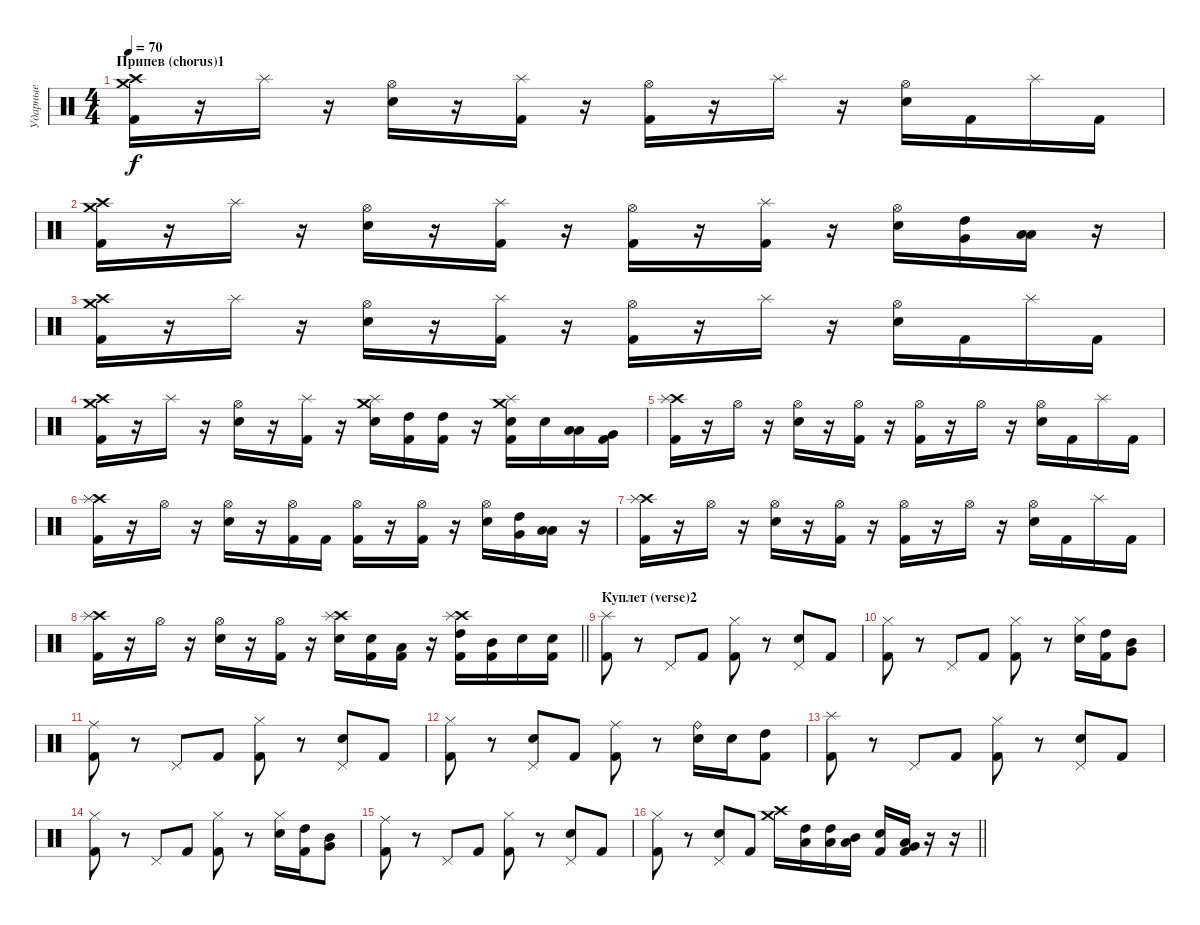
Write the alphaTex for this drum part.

\track ("Ударные" "Ударные") {instrument percussion}
\staff {score}
\articulation defaults
\ts (4 4)
\section ("" "Припев (chorus)1")
\tempo 70
\clef neutral
\ks c
("Crash high (hit)" "Crash medium (hit)" "Kick (hit) 2").16{dy f} r.16 "Splash (hit)".16 r.16 ("Hi-Hat (open)" "Snare (hit) 2").16 r.16 ("Splash (hit)" "Kick (hit) 2").16 r.16 ("Hi-Hat (open)" "Kick (hit) 2").16 r.16 "Splash (hit)".16 r.16 ("Hi-Hat (open)" "Snare (hit) 2").16 "Kick (hit) 2".16 "Splash (hit)".16 "Kick (hit) 2".16 |
("Crash high (hit)" "Crash medium (hit)" "Kick (hit) 2").16 r.16 "Splash (hit)".16 r.16 ("Hi-Hat (open)" "Snare (hit) 2").16 r.16 ("Splash (hit)" "Kick (hit) 2").16 r.16 ("Hi-Hat (open)" "Kick (hit) 2").16 r.16 ("Splash (hit)" "Kick (hit) 2").16 r.16 ("Hi-Hat (open)" "Snare (hit) 2").16 ("High Tom (hit)" "Very Low Tom (hit)").16 ("Low Tom (hit)" "Low Floor Tom (hit)").16 r.16 |
("Crash high (hit)" "Crash medium (hit)" "Kick (hit) 2").16 r.16 "Splash (hit)".16 r.16 ("Hi-Hat (open)" "Snare (hit) 2").16 r.16 ("Splash (hit)" "Kick (hit) 2").16 r.16 ("Hi-Hat (open)" "Kick (hit) 2").16 r.16 "Splash (hit)".16 r.16 ("Hi-Hat (open)" "Snare (hit) 2").16 "Kick (hit) 2".16 "Splash (hit)".16 "Kick (hit) 2".16 |
("Crash high (hit)" "Crash medium (hit)" "Kick (hit) 2").16 r.16 "Splash (hit)".16 r.16 ("Hi-Hat (open)" "Snare (hit) 2").16 r.16 ("Splash (hit)" "Kick (hit) 2").16 r.16 ("Crash medium (hit)" "Splash (hit)" "Snare (hit) 2").16 ("High Tom (hit)" "Kick (hit) 2").16 ("High Tom (hit)" "Kick (hit) 2").16 r.16 ("Crash medium (hit)" "Splash (hit)" "Snare (hit) 2" "Kick (hit) 2").16 "Snare (hit) 2".16 ("Low Tom (hit)" "Low Floor Tom (hit)").16 ("Very Low Tom (hit)" "Kick (hit) 2").16 |
("Crash high (hit)" "Splash (hit)" "Kick (hit) 2").16 r.16 "Hi-Hat (open)".16 r.16 ("Hi-Hat (open)" "Snare (hit) 2").16 r.16 ("Hi-Hat (open)" "Kick (hit) 2").16 r.16 ("Hi-Hat (open)" "Kick (hit) 2").16 r.16 "Hi-Hat (open)".16 r.16 ("Hi-Hat (open)" "Snare (hit) 2").16 "Kick (hit) 2".16 "Splash (hit)".16 "Kick (hit) 2".16 |
("Crash high (hit)" "Splash (hit)" "Kick (hit) 2").16 r.16 "Hi-Hat (open)".16 r.16 ("Hi-Hat (open)" "Snare (hit) 2").16 r.16 ("Hi-Hat (open)" "Kick (hit) 2").16 "Kick (hit) 2".16 ("Hi-Hat (open)" "Kick (hit) 2").16 r.16 ("Hi-Hat (open)" "Kick (hit) 2").16 r.16 ("Hi-Hat (open)" "Snare (hit) 2").16 ("High Tom (hit)" "Very Low Tom (hit)").16 ("Low Tom (hit)" "Low Floor Tom (hit)").16 r.16 |
("Crash high (hit)" "Splash (hit)" "Kick (hit) 2").16 r.16 "Hi-Hat (open)".16 r.16 ("Hi-Hat (open)" "Snare (hit) 2").16 r.16 ("Hi-Hat (open)" "Kick (hit) 2").16 r.16 ("Hi-Hat (open)" "Kick (hit) 2").16 r.16 "Hi-Hat (open)".16 r.16 ("Hi-Hat (open)" "Snare (hit) 2").16 "Kick (hit) 2".16 "Splash (hit)".16 "Kick (hit) 2".16 |
\barLineRight lightlight
("Crash high (hit)" "Splash (hit)" "Kick (hit) 2").16 r.16 "Hi-Hat (open)".16 r.16 ("Hi-Hat (open)" "Snare (hit) 2").16 r.16 ("Hi-Hat (open)" "Kick (hit) 2").16 r.16 ("Crash high (hit)" "Splash (hit)" "Snare (hit) 2").16 ("Snare (hit) 2" "Kick (hit) 2").16 ("Low Tom (hit)" "Kick (hit) 2").16 r.16 ("Crash high (hit)" "Splash (hit)" "High Tom (hit)" "Kick (hit) 2").16 ("Mid Tom (hit)" "Kick (hit) 2").16 "Snare (hit) 2".16 ("Snare (hit) 2" "Kick (hit) 2").16 |
\section ("" "Куплет (verse)2")
("Splash (hit)" "Kick (hit) 2").8 r.8 "Pedal Hi-Hat (hit)".8 "Kick (hit) 2".8 ("Hi-Hat (closed)" "Kick (hit) 2").8 r.8 ("Pedal Hi-Hat (hit)" "Snare (hit) 2").8 "Kick (hit) 2".8 |
("Hi-Hat (closed)" "Kick (hit) 2").8 r.8 "Pedal Hi-Hat (hit)".8 "Kick (hit) 2".8 ("Hi-Hat (closed)" "Kick (hit) 2").8 r.8 ("Hi-Hat (closed)" "Snare (hit) 2").16 ("High Tom (hit)" "Kick (hit) 2").16 ("Mid Tom (hit)" "Very Low Tom (hit)").8 |
("Ride (middle)" "Kick (hit) 2").8 r.8 "Pedal Hi-Hat (hit)".8 "Kick (hit) 2".8 ("Hi-Hat (closed)" "Kick (hit) 2").8 r.8 ("Pedal Hi-Hat (hit)" "Snare (hit) 2").8 "Kick (hit) 2".8 |
("Hi-Hat (closed)" "Kick (hit) 2").8 r.8 ("Pedal Hi-Hat (hit)" "Snare (hit) 2").8 "Kick (hit) 2".8 ("Ride (middle)" "Kick (hit) 2").8 r.8 ("Ride (bell)" "Snare (hit) 2").16 "Snare (hit) 2".16 ("High Tom (hit)" "Kick (hit) 2").8 |
("Splash (hit)" "Kick (hit) 2").8 r.8 "Pedal Hi-Hat (hit)".8 "Kick (hit) 2".8 ("Hi-Hat (closed)" "Kick (hit) 2").8 r.8 ("Pedal Hi-Hat (hit)" "Snare (hit) 2").8 "Kick (hit) 2".8 |
("Hi-Hat (closed)" "Kick (hit) 2").8 r.8 "Pedal Hi-Hat (hit)".8 "Kick (hit) 2".8 ("Hi-Hat (closed)" "Kick (hit) 2").8 r.8 ("Hi-Hat (closed)" "Snare (hit) 2").16 ("High Tom (hit)" "Kick (hit) 2").16 ("Mid Tom (hit)" "Very Low Tom (hit)").8 |
("Ride (middle)" "Kick (hit) 2").8 r.8 "Pedal Hi-Hat (hit)".8 "Kick (hit) 2".8 ("Hi-Hat (closed)" "Kick (hit) 2").8 r.8 ("Pedal Hi-Hat (hit)" "Snare (hit) 2").8 "Kick (hit) 2".8 |
\barLineRight lightlight
("Hi-Hat (closed)" "Kick (hit) 2").8 r.8 ("Pedal Hi-Hat (hit)" "Snare (hit) 2").8 "Kick (hit) 2".8 ("Crash high (hit)" "Crash medium (hit)").16 ("High Tom (hit)" "Low Floor Tom (hit)").16 ("High Tom (hit)" "Low Floor Tom (hit)").16 ("Mid Tom (hit)" "Low Floor Tom (hit)").16 ("Snare (hit) 2" "Kick (hit) 2").16 ("Low Tom (hit)" "Very Low Tom (hit)" "Kick (hit) 2").16 r.16 r.16
